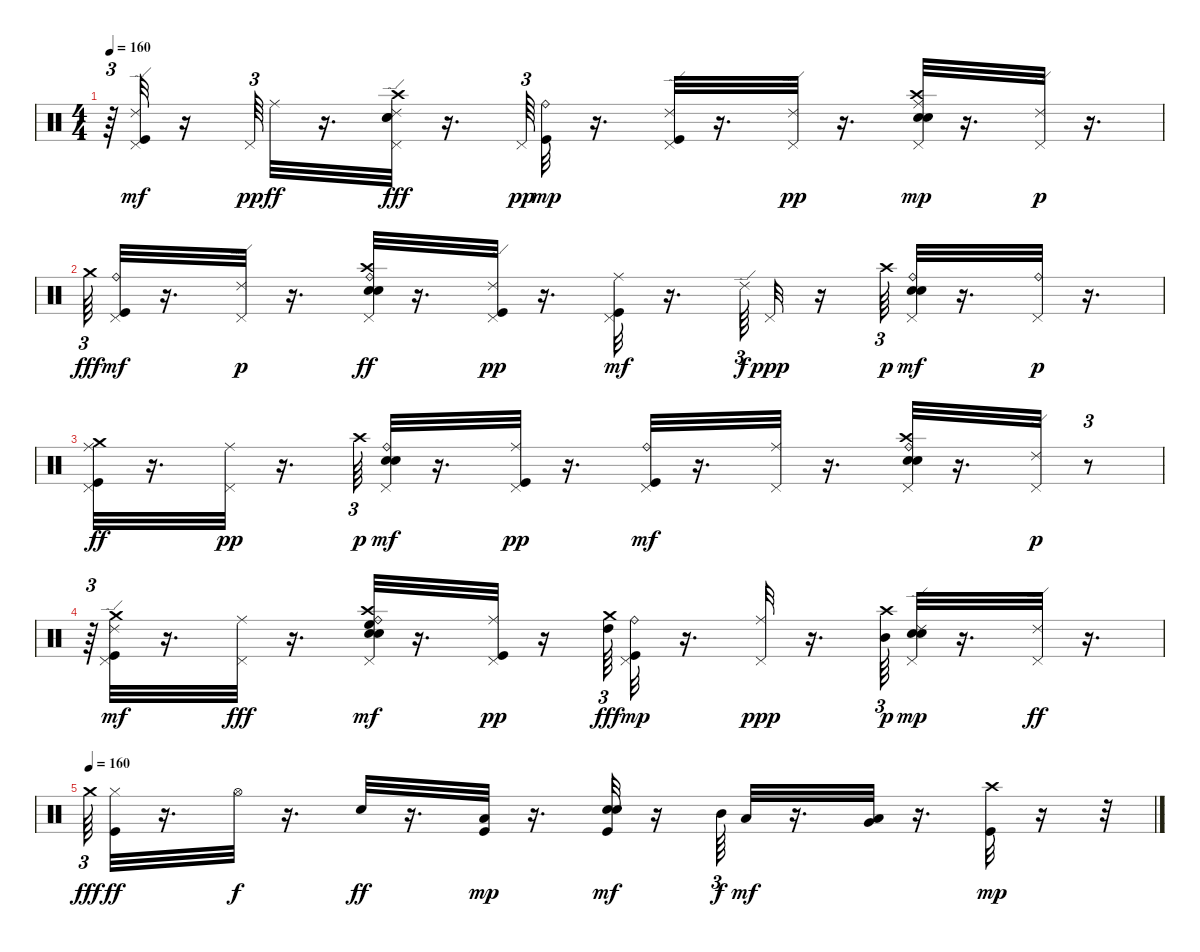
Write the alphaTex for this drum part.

\track "" {instrument percussion}
\staff {score}
\articulation defaults
\ts (4 4)
\tempo 160
\clef neutral
\ks c
r.64{tu (3 2) dy fff} ("Kick (hit)" "Ride (edge) 2" "Pedal Hi-Hat (hit)").32{dy mf} r.16 "Pedal Hi-Hat (hit)".64{tu (3 2) dy pp} "Ride (middle)".32{dy ff} r.16{d} ("Pedal Hi-Hat (hit)" "Electric Snare (hit)" "Crash high (hit)" "Snare (hit) 2" "Ride (edge) 2").32{dy fff} r.16{d} "Pedal Hi-Hat (hit)".64{tu (3 2) dy pp} ("Kick (hit)" "Ride (bell)").32{dy mp} r.16{d} ("Kick (hit)" "Ride (edge) 2" "Pedal Hi-Hat (hit)").32 r.16{d} ("Ride (edge) 2" "Pedal Hi-Hat (hit)").32{dy pp} r.16{d} ("Electric Snare (hit)" "Snare (hit) 2" "Ride (middle)" "Pedal Hi-Hat (hit)" "Crash high (hit)").32{dy mp} r.16{d} ("Ride (edge) 2" "Pedal Hi-Hat (hit)").32{dy p} r.16{d} |
"Crash medium (hit)".64{tu (3 2) dy fff} ("Kick (hit)" "Ride (bell)" "Pedal Hi-Hat (hit)").32{dy mf} r.16{d} ("Ride (edge) 2" "Pedal Hi-Hat (hit)").32{dy p} r.16{d} ("Electric Snare (hit)" "Crash high (hit)" "Snare (hit) 2" "Ride (bell)" "Pedal Hi-Hat (hit)").32{dy ff} r.16{d} ("Kick (hit)" "Ride (edge) 2" "Pedal Hi-Hat (hit)").32{dy pp} r.16{d} ("Kick (hit)" "Ride (middle)" "Pedal Hi-Hat (hit)").32{dy mf} r.16{d} "Ride (edge) 2".64{tu (3 2) dy f} "Pedal Hi-Hat (hit)".32{dy ppp} r.16 "Crash high (hit)".64{tu (3 2) dy p} ("Electric Snare (hit)" "Snare (hit) 2" "Ride (bell)" "Pedal Hi-Hat (hit)").32{dy mf} r.16{d} ("Ride (bell)" "Pedal Hi-Hat (hit)").32{dy p} r.16{d} |
("Crash medium (hit)" "Kick (hit)" "Ride (middle)" "Pedal Hi-Hat (hit)").32{dy ff} r.16{d} ("Ride (middle)" "Pedal Hi-Hat (hit)").32{dy pp} r.16{d} "Crash high (hit)".64{tu (3 2) dy p} ("Electric Snare (hit)" "Snare (hit) 2" "Ride (bell)" "Pedal Hi-Hat (hit)").32{dy mf} r.16{d} ("Kick (hit)" "Ride (middle)" "Pedal Hi-Hat (hit)").32{dy pp} r.16{d} ("Kick (hit)" "Ride (bell)" "Pedal Hi-Hat (hit)").32{dy mf} r.16{d} ("Pedal Hi-Hat (hit)" "Ride (middle)").32 r.16{d} ("Electric Snare (hit)" "Crash high (hit)" "Snare (hit) 2" "Ride (bell)" "Pedal Hi-Hat (hit)").32 r.16{d} ("Ride (edge) 2" "Pedal Hi-Hat (hit)").32{dy p} r.8{tu (3 2)} |
r.64{tu (3 2)} ("Crash medium (hit)" "Kick (hit)" "Ride (edge) 2" "Pedal Hi-Hat (hit)").32{dy mf} r.16{d} ("Pedal Hi-Hat (hit)" "Ride (middle)").32{dy fff} r.16{d} ("High Floor Tom (hit)" "Electric Snare (hit)" "Crash high (hit)" "Snare (hit) 2" "Ride (bell)" "Pedal Hi-Hat (hit)").32{dy mf} r.16{d} ("Kick (hit)" "Ride (middle)" "Pedal Hi-Hat (hit)").32{dy pp} r.16 ("Crash medium (hit)" "High Tom (hit)").64{tu (3 2) dy fff} ("Kick (hit)" "Ride (bell)" "Pedal Hi-Hat (hit)").32{dy mp} r.16{d} ("Ride (middle)" "Pedal Hi-Hat (hit)").32{dy ppp} r.16{d} ("Mid Tom (hit)" "Crash high (hit)").64{tu (3 2) dy p} ("Electric Snare (hit)" "Snare (hit) 2" "Ride (edge) 2" "Pedal Hi-Hat (hit)").32{dy mp} r.16{d} ("Pedal Hi-Hat (hit)" "Ride (edge) 2").32{dy ff} r.16{d} |
\tempo (160)
"Crash medium (hit)".64{tu (3 2) dy fff} ("Kick (hit)" "Hi-Hat (closed)").32{dy ff} r.16{d} "Hi-Hat (open)".32{dy f} r.16{d} "Electric Snare (hit)".32{dy ff} r.16{d} ("Kick (hit)" "Low Tom (hit)").32{dy mp} r.16{d} ("Kick (hit)" "Snare (hit) 2" "Electric Snare (hit)").32{dy mf} r.16 "Mid Tom (hit)".64{tu (3 2) dy f} "Low Tom (hit)".32{dy mf} r.16{d} ("Low Tom (hit)" "Very Low Tom (hit)").32 r.16{d} ("Kick (hit)" "Crash high (hit)").32{dy mp} r.16 r.32
